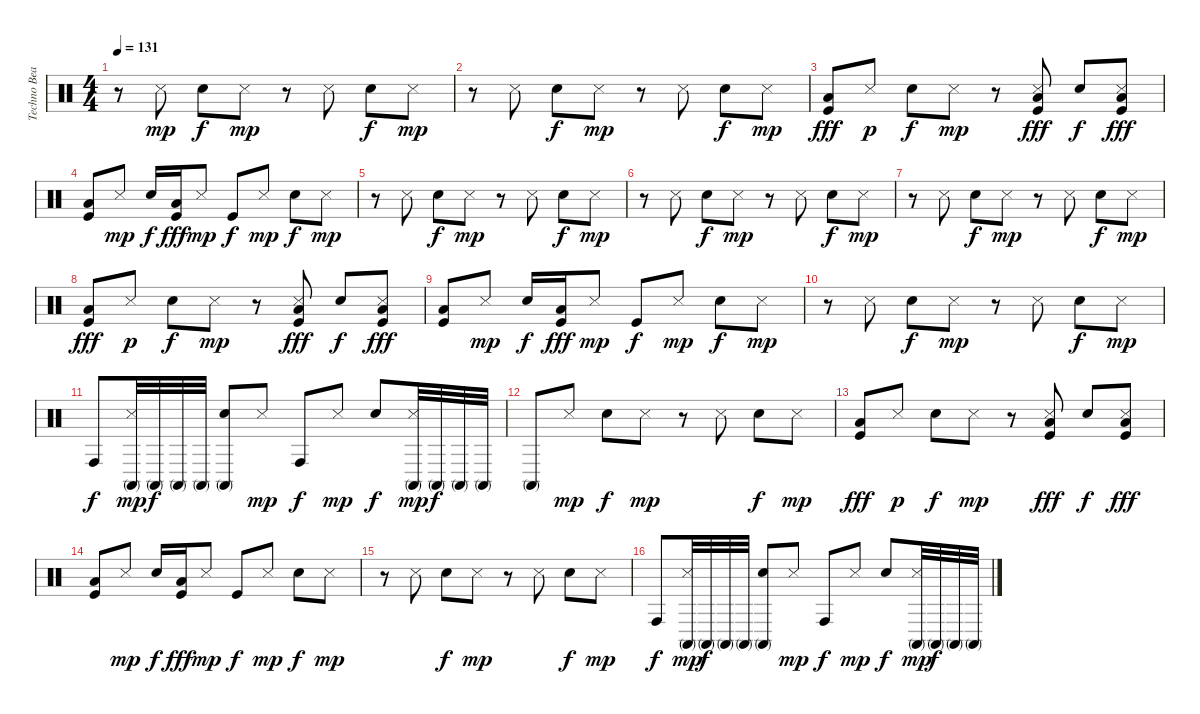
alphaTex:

\track ("Techno Beat" "Techno Bea") {instrument percussion}
\staff {score}
\articulation defaults
\ts (4 4)
\tempo 131
\clef neutral
\ks c
r.8{dy mp} "Snare (side stick) 3".8 "Electric Snare (hit)".8{dy f} "Snare (side stick) 3".8{dy mp} r.8 "Snare (side stick) 3".8 "Electric Snare (hit)".8{dy f} "Snare (side stick) 3".8{dy mp} |
r.8 "Snare (side stick) 3".8 "Electric Snare (hit)".8{dy f} "Snare (side stick) 3".8{dy mp} r.8 "Snare (side stick) 3".8 "Electric Snare (hit)".8{dy f} "Snare (side stick) 3".8{dy mp} |
("Low Tom (hit)" "Kick (hit)").8{dy fff} "Snare (side stick) 3".8{dy p} "Electric Snare (hit)".8{dy f} "Snare (side stick) 3".8{dy mp} r.8 ("Snare (side stick) 3" "Low Tom (hit)" "Kick (hit)").8{dy fff} "Electric Snare (hit)".8{dy f} ("Snare (side stick) 3" "Low Tom (hit)" "Kick (hit)").8{dy fff} |
("Low Tom (hit)" "Kick (hit)").8 "Snare (side stick) 3".8{dy mp} "Electric Snare (hit)".16{dy f} ("Low Tom (hit)" "Kick (hit)").16{dy fff} "Snare (side stick) 3".8{dy mp} "Kick (hit)".8{dy f} "Snare (side stick) 3".8{dy mp} "Electric Snare (hit)".8{dy f} "Snare (side stick) 3".8{dy mp} |
r.8 "Snare (side stick) 3".8 "Electric Snare (hit)".8{dy f} "Snare (side stick) 3".8{dy mp} r.8 "Snare (side stick) 3".8 "Electric Snare (hit)".8{dy f} "Snare (side stick) 3".8{dy mp} |
r.8 "Snare (side stick) 3".8 "Electric Snare (hit)".8{dy f} "Snare (side stick) 3".8{dy mp} r.8 "Snare (side stick) 3".8 "Electric Snare (hit)".8{dy f} "Snare (side stick) 3".8{dy mp} |
r.8 "Snare (side stick) 3".8 "Electric Snare (hit)".8{dy f} "Snare (side stick) 3".8{dy mp} r.8 "Snare (side stick) 3".8 "Electric Snare (hit)".8{dy f} "Snare (side stick) 3".8{dy mp} |
("Low Tom (hit)" "Kick (hit)").8{dy fff} "Snare (side stick) 3".8{dy p} "Electric Snare (hit)".8{dy f} "Snare (side stick) 3".8{dy mp} r.8 ("Snare (side stick) 3" "Low Tom (hit)" "Kick (hit)").8{dy fff} "Electric Snare (hit)".8{dy f} ("Snare (side stick) 3" "Low Tom (hit)" "Kick (hit)").8{dy fff} |
("Low Tom (hit)" "Kick (hit)").8 "Snare (side stick) 3".8{dy mp} "Electric Snare (hit)".16{dy f} ("Low Tom (hit)" "Kick (hit)").16{dy fff} "Snare (side stick) 3".8{dy mp} "Kick (hit)".8{dy f} "Snare (side stick) 3".8{dy mp} "Electric Snare (hit)".8{dy f} "Snare (side stick) 3".8{dy mp} |
r.8 "Snare (side stick) 3".8 "Electric Snare (hit)".8{dy f} "Snare (side stick) 3".8{dy mp} r.8 "Snare (side stick) 3".8 "Electric Snare (hit)".8{dy f} "Snare (side stick) 3".8{dy mp} |
"Conga high (hit)".8{dy f} ("Snare (side stick) 3" "Conga high (mute)").32{dy mp} "Conga high (mute)".32{dy f} "Conga high (mute)".32 "Conga high (mute)".32 ("Conga high (mute)" "Electric Snare (hit)").8 "Snare (side stick) 3".8{dy mp} "Conga high (hit)".8{dy f} "Snare (side stick) 3".8{dy mp} "Electric Snare (hit)".8{dy f} ("Snare (side stick) 3" "Conga high (mute)").32{dy mp} "Conga high (mute)".32{dy f} "Conga high (mute)".32 "Conga high (mute)".32 |
"Conga high (mute)".8 "Snare (side stick) 3".8{dy mp} "Electric Snare (hit)".8{dy f} "Snare (side stick) 3".8{dy mp} r.8 "Snare (side stick) 3".8 "Electric Snare (hit)".8{dy f} "Snare (side stick) 3".8{dy mp} |
("Low Tom (hit)" "Kick (hit)").8{dy fff} "Snare (side stick) 3".8{dy p} "Electric Snare (hit)".8{dy f} "Snare (side stick) 3".8{dy mp} r.8 ("Snare (side stick) 3" "Low Tom (hit)" "Kick (hit)").8{dy fff} "Electric Snare (hit)".8{dy f} ("Snare (side stick) 3" "Low Tom (hit)" "Kick (hit)").8{dy fff} |
("Low Tom (hit)" "Kick (hit)").8 "Snare (side stick) 3".8{dy mp} "Electric Snare (hit)".16{dy f} ("Low Tom (hit)" "Kick (hit)").16{dy fff} "Snare (side stick) 3".8{dy mp} "Kick (hit)".8{dy f} "Snare (side stick) 3".8{dy mp} "Electric Snare (hit)".8{dy f} "Snare (side stick) 3".8{dy mp} |
r.8 "Snare (side stick) 3".8 "Electric Snare (hit)".8{dy f} "Snare (side stick) 3".8{dy mp} r.8 "Snare (side stick) 3".8 "Electric Snare (hit)".8{dy f} "Snare (side stick) 3".8{dy mp} |
"Conga high (hit)".8{dy f} ("Snare (side stick) 3" "Conga high (mute)").32{dy mp} "Conga high (mute)".32{dy f} "Conga high (mute)".32 "Conga high (mute)".32 ("Conga high (mute)" "Electric Snare (hit)").8 "Snare (side stick) 3".8{dy mp} "Conga high (hit)".8{dy f} "Snare (side stick) 3".8{dy mp} "Electric Snare (hit)".8{dy f} ("Snare (side stick) 3" "Conga high (mute)").32{dy mp} "Conga high (mute)".32{dy f} "Conga high (mute)".32 "Conga high (mute)".32
